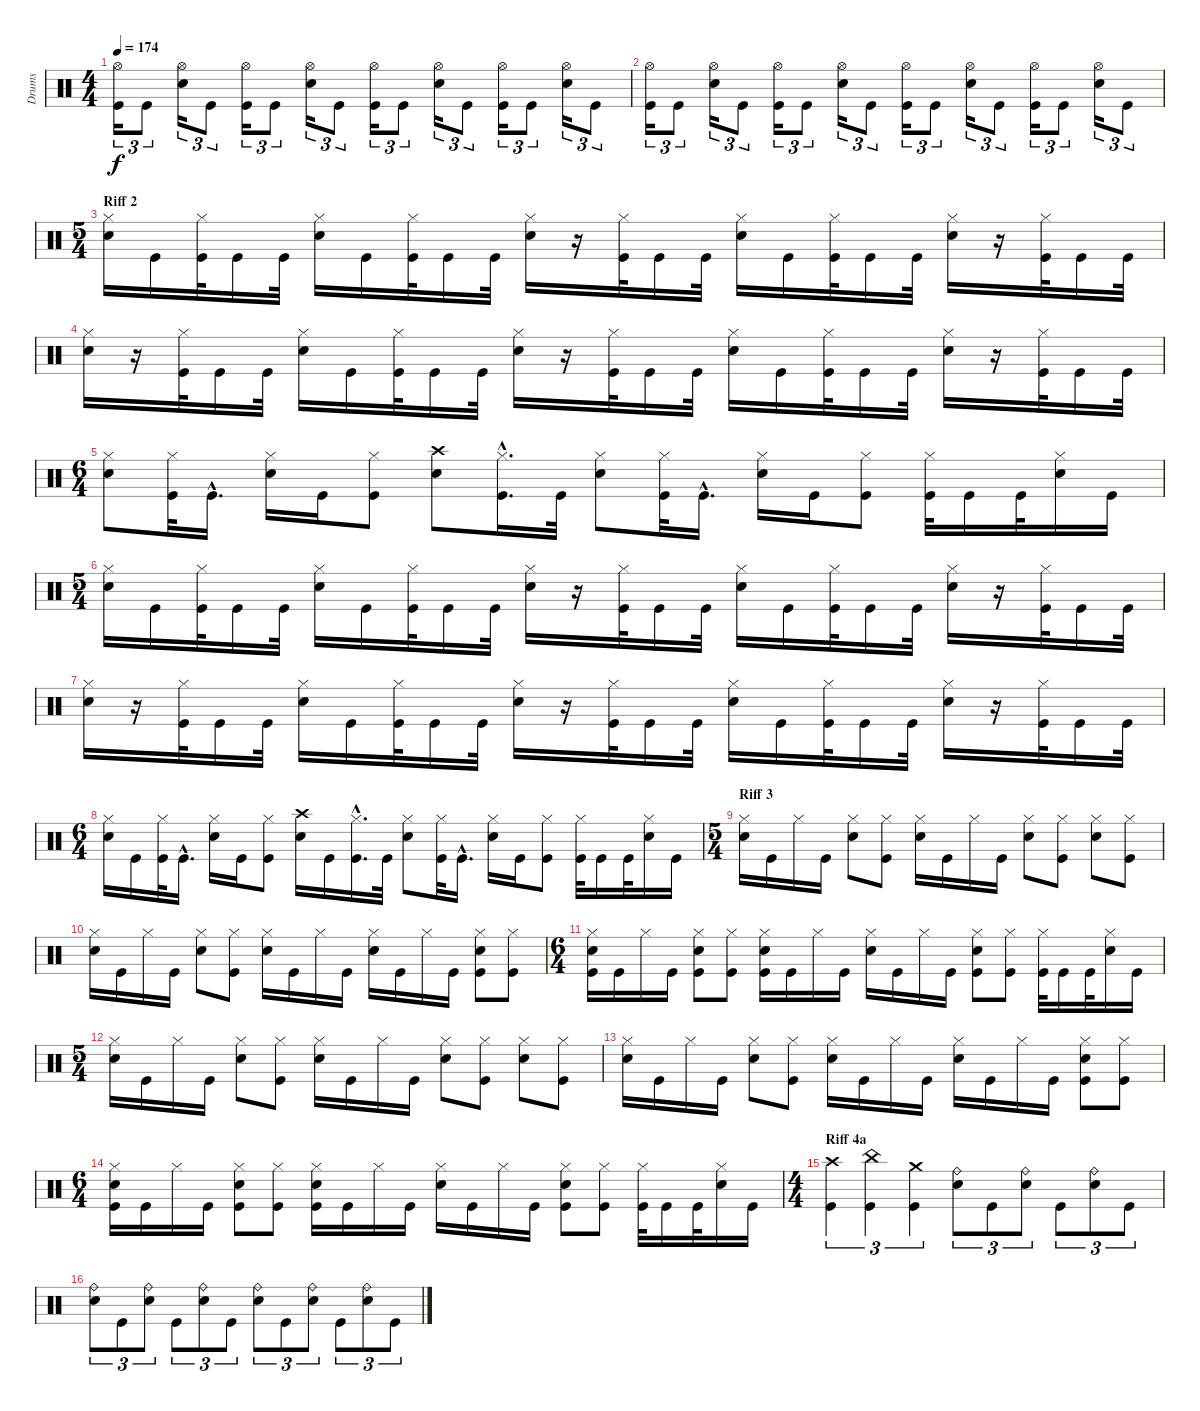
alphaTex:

\track ("Drums" "Drums") {instrument percussion}
\staff {score}
\articulation defaults
\ts (4 4)
\tempo 174
\clef neutral
\ks c
("Hi-Hat (open)" "Kick (hit)").16{tu (3 2) dy f} "Kick (hit)".8{tu (3 2)} ("Hi-Hat (open)" "Electric Snare (hit)").16{tu (3 2)} "Kick (hit)".8{tu (3 2)} ("Hi-Hat (open)" "Kick (hit)").16{tu (3 2)} "Kick (hit)".8{tu (3 2)} ("Hi-Hat (open)" "Electric Snare (hit)").16{tu (3 2)} "Kick (hit)".8{tu (3 2)} ("Hi-Hat (open)" "Kick (hit)").16{tu (3 2)} "Kick (hit)".8{tu (3 2)} ("Hi-Hat (open)" "Electric Snare (hit)").16{tu (3 2)} "Kick (hit)".8{tu (3 2)} ("Hi-Hat (open)" "Kick (hit)").16{tu (3 2)} "Kick (hit)".8{tu (3 2)} ("Hi-Hat (open)" "Electric Snare (hit)").16{tu (3 2)} "Kick (hit)".8{tu (3 2)} |
("Hi-Hat (open)" "Kick (hit)").16{tu (3 2)} "Kick (hit)".8{tu (3 2)} ("Hi-Hat (open)" "Electric Snare (hit)").16{tu (3 2)} "Kick (hit)".8{tu (3 2)} ("Hi-Hat (open)" "Kick (hit)").16{tu (3 2)} "Kick (hit)".8{tu (3 2)} ("Hi-Hat (open)" "Electric Snare (hit)").16{tu (3 2)} "Kick (hit)".8{tu (3 2)} ("Hi-Hat (open)" "Kick (hit)").16{tu (3 2)} "Kick (hit)".8{tu (3 2)} ("Hi-Hat (open)" "Electric Snare (hit)").16{tu (3 2)} "Kick (hit)".8{tu (3 2)} ("Hi-Hat (open)" "Kick (hit)").16{tu (3 2)} "Kick (hit)".8{tu (3 2)} ("Hi-Hat (open)" "Electric Snare (hit)").16{tu (3 2)} "Kick (hit)".8{tu (3 2)} |
\ts (5 4)
\section ("" "Riff 2")
("Hi-Hat (closed)" "Electric Snare (hit)").16 "Kick (hit)".16 ("Hi-Hat (closed)" "Kick (hit)").32 "Kick (hit)".16 "Kick (hit)".32 ("Hi-Hat (closed)" "Electric Snare (hit)").16 "Kick (hit)".16 ("Hi-Hat (closed)" "Kick (hit)").32 "Kick (hit)".16 "Kick (hit)".32 ("Hi-Hat (closed)" "Electric Snare (hit)").16 r.16 ("Hi-Hat (closed)" "Kick (hit)").32 "Kick (hit)".16 "Kick (hit)".32 ("Hi-Hat (closed)" "Electric Snare (hit)").16 "Kick (hit)".16 ("Hi-Hat (closed)" "Kick (hit)").32 "Kick (hit)".16 "Kick (hit)".32 ("Hi-Hat (closed)" "Electric Snare (hit)").16 r.16 ("Hi-Hat (closed)" "Kick (hit)").32 "Kick (hit)".16 "Kick (hit)".32 |
("Hi-Hat (closed)" "Electric Snare (hit)").16 r.16 ("Hi-Hat (closed)" "Kick (hit)").32 "Kick (hit)".16 "Kick (hit)".32 ("Hi-Hat (closed)" "Electric Snare (hit)").16 "Kick (hit)".16 ("Hi-Hat (closed)" "Kick (hit)").32 "Kick (hit)".16 "Kick (hit)".32 ("Hi-Hat (closed)" "Electric Snare (hit)").16 r.16 ("Hi-Hat (closed)" "Kick (hit)").32 "Kick (hit)".16 "Kick (hit)".32 ("Hi-Hat (closed)" "Electric Snare (hit)").16 "Kick (hit)".16 ("Hi-Hat (closed)" "Kick (hit)").32 "Kick (hit)".16 "Kick (hit)".32 ("Hi-Hat (closed)" "Electric Snare (hit)").16 r.16 ("Hi-Hat (closed)" "Kick (hit)").32 "Kick (hit)".16 "Kick (hit)".32 |
\ts (6 4)
("Hi-Hat (closed)" "Electric Snare (hit)").8 ("Hi-Hat (closed)" "Kick (hit)").32 "Kick (hit)"{hac}.16{d} ("Hi-Hat (closed)" "Electric Snare (hit)").16 "Kick (hit)".16 ("Hi-Hat (closed)" "Kick (hit)").8 ("Crash high (hit)" "Electric Snare (hit)").8 ("Hi-Hat (closed)"{hac} "Kick (hit)"{hac}).16{d} "Kick (hit)".32 ("Hi-Hat (closed)" "Electric Snare (hit)").8 ("Hi-Hat (closed)" "Kick (hit)").32 "Kick (hit)"{hac}.16{d} ("Hi-Hat (closed)" "Electric Snare (hit)").16 "Kick (hit)".16 ("Hi-Hat (closed)" "Kick (hit)").8 ("Hi-Hat (closed)" "Kick (hit)").32 "Kick (hit)".16 "Kick (hit)".32 ("Hi-Hat (closed)" "Electric Snare (hit)").16 "Kick (hit)".16 |
\ts (5 4)
("Hi-Hat (closed)" "Electric Snare (hit)").16 "Kick (hit)".16 ("Hi-Hat (closed)" "Kick (hit)").32 "Kick (hit)".16 "Kick (hit)".32 ("Hi-Hat (closed)" "Electric Snare (hit)").16 "Kick (hit)".16 ("Hi-Hat (closed)" "Kick (hit)").32 "Kick (hit)".16 "Kick (hit)".32 ("Hi-Hat (closed)" "Electric Snare (hit)").16 r.16 ("Hi-Hat (closed)" "Kick (hit)").32 "Kick (hit)".16 "Kick (hit)".32 ("Hi-Hat (closed)" "Electric Snare (hit)").16 "Kick (hit)".16 ("Hi-Hat (closed)" "Kick (hit)").32 "Kick (hit)".16 "Kick (hit)".32 ("Hi-Hat (closed)" "Electric Snare (hit)").16 r.16 ("Hi-Hat (closed)" "Kick (hit)").32 "Kick (hit)".16 "Kick (hit)".32 |
("Hi-Hat (closed)" "Electric Snare (hit)").16 r.16 ("Hi-Hat (closed)" "Kick (hit)").32 "Kick (hit)".16 "Kick (hit)".32 ("Hi-Hat (closed)" "Electric Snare (hit)").16 "Kick (hit)".16 ("Hi-Hat (closed)" "Kick (hit)").32 "Kick (hit)".16 "Kick (hit)".32 ("Hi-Hat (closed)" "Electric Snare (hit)").16 r.16 ("Hi-Hat (closed)" "Kick (hit)").32 "Kick (hit)".16 "Kick (hit)".32 ("Hi-Hat (closed)" "Electric Snare (hit)").16 "Kick (hit)".16 ("Hi-Hat (closed)" "Kick (hit)").32 "Kick (hit)".16 "Kick (hit)".32 ("Hi-Hat (closed)" "Electric Snare (hit)").16 r.16 ("Hi-Hat (closed)" "Kick (hit)").32 "Kick (hit)".16 "Kick (hit)".32 |
\ts (6 4)
("Hi-Hat (closed)" "Electric Snare (hit)").16 "Kick (hit)".16 ("Hi-Hat (closed)" "Kick (hit)").32 "Kick (hit)"{hac}.16{d} ("Hi-Hat (closed)" "Electric Snare (hit)").16 "Kick (hit)".16 ("Hi-Hat (closed)" "Kick (hit)").8 ("Crash high (hit)" "Electric Snare (hit)").16 "Kick (hit)".16 ("Hi-Hat (closed)"{hac} "Kick (hit)"{hac}).16{d} "Kick (hit)".32 ("Hi-Hat (closed)" "Electric Snare (hit)").8 ("Hi-Hat (closed)" "Kick (hit)").32 "Kick (hit)"{hac}.16{d} ("Hi-Hat (closed)" "Electric Snare (hit)").16 "Kick (hit)".16 ("Hi-Hat (closed)" "Kick (hit)").8 ("Hi-Hat (closed)" "Kick (hit)").32 "Kick (hit)".16 "Kick (hit)".32 ("Hi-Hat (closed)" "Electric Snare (hit)").16 "Kick (hit)".16 |
\ts (5 4)
\section ("" "Riff 3")
("Hi-Hat (closed)" "Electric Snare (hit)").16 "Kick (hit)".16 "Hi-Hat (closed)".16 "Kick (hit)".16 ("Hi-Hat (closed)" "Electric Snare (hit)").8 ("Hi-Hat (closed)" "Kick (hit)").8 ("Hi-Hat (closed)" "Electric Snare (hit)").16 "Kick (hit)".16 "Hi-Hat (closed)".16 "Kick (hit)".16 ("Hi-Hat (closed)" "Electric Snare (hit)").8 ("Hi-Hat (closed)" "Kick (hit)").8 ("Hi-Hat (closed)" "Electric Snare (hit)").8 ("Hi-Hat (closed)" "Kick (hit)").8 |
("Hi-Hat (closed)" "Electric Snare (hit)").16 "Kick (hit)".16 "Hi-Hat (closed)".16 "Kick (hit)".16 ("Hi-Hat (closed)" "Electric Snare (hit)").8 ("Hi-Hat (closed)" "Kick (hit)").8 ("Hi-Hat (closed)" "Electric Snare (hit)").16 "Kick (hit)".16 "Hi-Hat (closed)".16 "Kick (hit)".16 ("Hi-Hat (closed)" "Electric Snare (hit)").16 "Kick (hit)".16 "Hi-Hat (closed)".16 "Kick (hit)".16 ("Hi-Hat (closed)" "Electric Snare (hit)" "Kick (hit)").8 ("Hi-Hat (closed)" "Kick (hit)").8 |
\ts (6 4)
("Hi-Hat (closed)" "Electric Snare (hit)" "Kick (hit)").16 "Kick (hit)".16 "Hi-Hat (closed)".16 "Kick (hit)".16 ("Hi-Hat (closed)" "Electric Snare (hit)" "Kick (hit)").8 ("Hi-Hat (closed)" "Kick (hit)").8 ("Hi-Hat (closed)" "Electric Snare (hit)" "Kick (hit)").16 "Kick (hit)".16 "Hi-Hat (closed)".16 "Kick (hit)".16 ("Hi-Hat (closed)" "Electric Snare (hit)").16 "Kick (hit)".16 "Hi-Hat (closed)".16 "Kick (hit)".16 ("Hi-Hat (closed)" "Electric Snare (hit)" "Kick (hit)").8 ("Hi-Hat (closed)" "Kick (hit)").8 ("Hi-Hat (closed)" "Kick (hit)").32 "Kick (hit)".16 "Kick (hit)".32 ("Hi-Hat (closed)" "Electric Snare (hit)").16 "Kick (hit)".16 |
\ts (5 4)
("Hi-Hat (closed)" "Electric Snare (hit)").16 "Kick (hit)".16 "Hi-Hat (closed)".16 "Kick (hit)".16 ("Hi-Hat (closed)" "Electric Snare (hit)").8 ("Hi-Hat (closed)" "Kick (hit)").8 ("Hi-Hat (closed)" "Electric Snare (hit)").16 "Kick (hit)".16 "Hi-Hat (closed)".16 "Kick (hit)".16 ("Hi-Hat (closed)" "Electric Snare (hit)").8 ("Hi-Hat (closed)" "Kick (hit)").8 ("Hi-Hat (closed)" "Electric Snare (hit)").8 ("Hi-Hat (closed)" "Kick (hit)").8 |
("Hi-Hat (closed)" "Electric Snare (hit)").16 "Kick (hit)".16 "Hi-Hat (closed)".16 "Kick (hit)".16 ("Hi-Hat (closed)" "Electric Snare (hit)").8 ("Hi-Hat (closed)" "Kick (hit)").8 ("Hi-Hat (closed)" "Electric Snare (hit)").16 "Kick (hit)".16 "Hi-Hat (closed)".16 "Kick (hit)".16 ("Hi-Hat (closed)" "Electric Snare (hit)").16 "Kick (hit)".16 "Hi-Hat (closed)".16 "Kick (hit)".16 ("Hi-Hat (closed)" "Electric Snare (hit)" "Kick (hit)").8 ("Hi-Hat (closed)" "Kick (hit)").8 |
\ts (6 4)
("Hi-Hat (closed)" "Electric Snare (hit)" "Kick (hit)").16 "Kick (hit)".16 "Hi-Hat (closed)".16 "Kick (hit)".16 ("Hi-Hat (closed)" "Electric Snare (hit)" "Kick (hit)").8 ("Hi-Hat (closed)" "Kick (hit)").8 ("Hi-Hat (closed)" "Electric Snare (hit)" "Kick (hit)").16 "Kick (hit)".16 "Hi-Hat (closed)".16 "Kick (hit)".16 ("Hi-Hat (closed)" "Electric Snare (hit)").16 "Kick (hit)".16 "Hi-Hat (closed)".16 "Kick (hit)".16 ("Hi-Hat (closed)" "Electric Snare (hit)" "Kick (hit)").8 ("Hi-Hat (closed)" "Kick (hit)").8 ("Hi-Hat (closed)" "Kick (hit)").32 "Kick (hit)".16 "Kick (hit)".32 ("Hi-Hat (closed)" "Electric Snare (hit)").16 "Kick (hit)".16 |
\ts (4 4)
\section ("" "Riff 4a")
("Crash high (hit)" "Kick (hit)").4{tu (3 2)} ("China (hit)" "Kick (hit)").4{tu (3 2)} ("Crash medium (hit)" "Kick (hit)").4{tu (3 2)} ("Ride (bell)" "Electric Snare (hit)").8{tu (3 2)} "Kick (hit)".8{tu (3 2)} ("Ride (bell)" "Electric Snare (hit)").8{tu (3 2)} "Kick (hit)".8{tu (3 2)} ("Ride (bell)" "Electric Snare (hit)").8{tu (3 2)} "Kick (hit)".8{tu (3 2)} |
("Ride (bell)" "Electric Snare (hit)").8{tu (3 2)} "Kick (hit)".8{tu (3 2)} ("Ride (bell)" "Electric Snare (hit)").8{tu (3 2)} "Kick (hit)".8{tu (3 2)} ("Ride (bell)" "Electric Snare (hit)").8{tu (3 2)} "Kick (hit)".8{tu (3 2)} ("Ride (bell)" "Electric Snare (hit)").8{tu (3 2)} "Kick (hit)".8{tu (3 2)} ("Ride (bell)" "Electric Snare (hit)").8{tu (3 2)} "Kick (hit)".8{tu (3 2)} ("Ride (bell)" "Electric Snare (hit)").8{tu (3 2)} "Kick (hit)".8{tu (3 2)}
